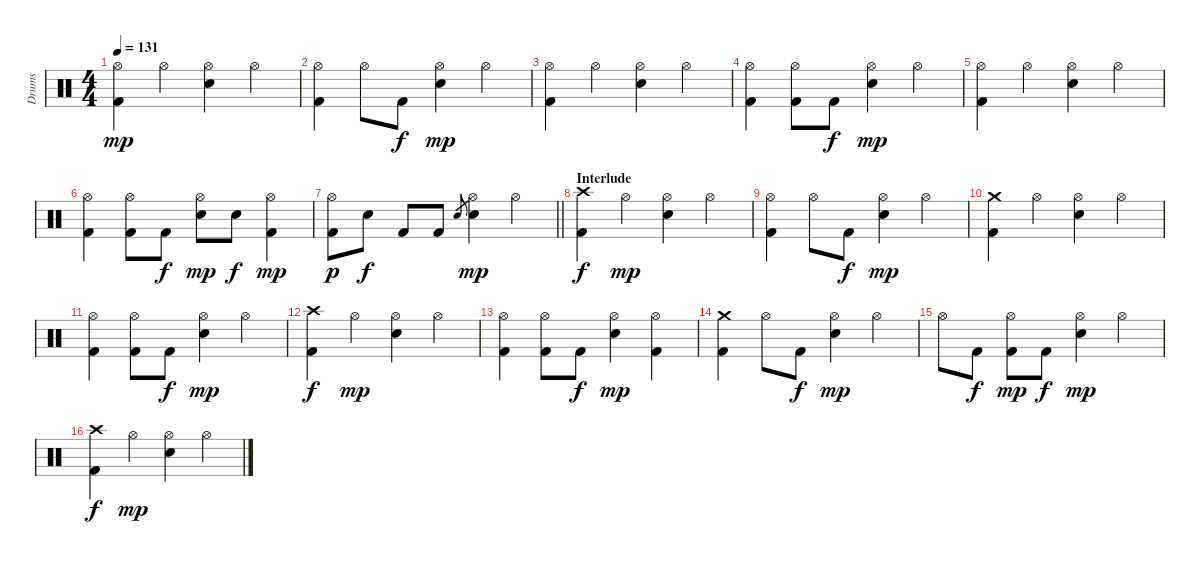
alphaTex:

\track ("Drums" "Drums") {instrument percussion}
\staff {score}
\articulation defaults
\ts (4 4)
\tempo 131
\clef neutral
\ks c
("Hi-Hat (open)" "Kick (hit) 2").4{dy mp} "Hi-Hat (open)".4 ("Hi-Hat (open)" "Electric Snare (hit)").4 "Hi-Hat (open)".4 |
("Hi-Hat (open)" "Kick (hit) 2").4 "Hi-Hat (open)".8 "Kick (hit) 2".8{dy f} ("Hi-Hat (open)" "Electric Snare (hit)").4{dy mp} "Hi-Hat (open)".4 |
("Hi-Hat (open)" "Kick (hit) 2").4 "Hi-Hat (open)".4 ("Hi-Hat (open)" "Electric Snare (hit)").4 "Hi-Hat (open)".4 |
("Hi-Hat (open)" "Kick (hit) 2").4 ("Hi-Hat (open)" "Kick (hit) 2").8 "Kick (hit) 2".8{dy f} ("Hi-Hat (open)" "Electric Snare (hit)").4{dy mp} "Hi-Hat (open)".4 |
("Hi-Hat (open)" "Kick (hit) 2").4 "Hi-Hat (open)".4 ("Hi-Hat (open)" "Electric Snare (hit)").4 "Hi-Hat (open)".4 |
("Hi-Hat (open)" "Kick (hit) 2").4 ("Hi-Hat (open)" "Kick (hit) 2").8 "Kick (hit) 2".8{dy f} ("Hi-Hat (open)" "Electric Snare (hit)").8{dy mp} "Electric Snare (hit)".8{dy f} ("Hi-Hat (open)" "Kick (hit) 2").4{dy mp} |
\barLineRight lightlight
("Hi-Hat (open)" "Kick (hit) 2").8{dy p} "Electric Snare (hit)".8{dy f} "Kick (hit) 2".8 "Kick (hit) 2".8 "Electric Snare (hit)".8{gr} ("Hi-Hat (open)" "Electric Snare (hit)").4{dy mp} "Hi-Hat (open)".4 |
\section ("" "Interlude")
("Crash high (hit)" "Kick (hit) 2").4{dy f} "Hi-Hat (open)".4{dy mp} ("Hi-Hat (open)" "Electric Snare (hit)").4 "Hi-Hat (open)".4 |
("Hi-Hat (open)" "Kick (hit) 2").4 "Hi-Hat (open)".8 "Kick (hit) 2".8{dy f} ("Hi-Hat (open)" "Electric Snare (hit)").4{dy mp} "Hi-Hat (open)".4 |
("Crash medium (hit)" "Kick (hit) 2").4 "Hi-Hat (open)".4 ("Hi-Hat (open)" "Electric Snare (hit)").4 "Hi-Hat (open)".4 |
("Hi-Hat (open)" "Kick (hit) 2").4 ("Hi-Hat (open)" "Kick (hit) 2").8 "Kick (hit) 2".8{dy f} ("Hi-Hat (open)" "Electric Snare (hit)").4{dy mp} "Hi-Hat (open)".4 |
("Crash high (hit)" "Kick (hit) 2").4{dy f} "Hi-Hat (open)".4{dy mp} ("Hi-Hat (open)" "Electric Snare (hit)").4 "Hi-Hat (open)".4 |
("Hi-Hat (open)" "Kick (hit) 2").4 ("Hi-Hat (open)" "Kick (hit) 2").8 "Kick (hit) 2".8{dy f} ("Hi-Hat (open)" "Electric Snare (hit)").4{dy mp} ("Hi-Hat (open)" "Kick (hit) 2").4 |
("Crash medium (hit)" "Kick (hit) 2").4 "Hi-Hat (open)".8 "Kick (hit) 2".8{dy f} ("Hi-Hat (open)" "Electric Snare (hit)").4{dy mp} "Hi-Hat (open)".4 |
"Hi-Hat (open)".8 "Kick (hit) 2".8{dy f} ("Hi-Hat (open)" "Kick (hit) 2").8{dy mp} "Kick (hit) 2".8{dy f} ("Hi-Hat (open)" "Electric Snare (hit)").4{dy mp} "Hi-Hat (open)".4 |
("Crash high (hit)" "Kick (hit) 2").4{dy f} "Hi-Hat (open)".4{dy mp} ("Hi-Hat (open)" "Electric Snare (hit)").4 "Hi-Hat (open)".4
